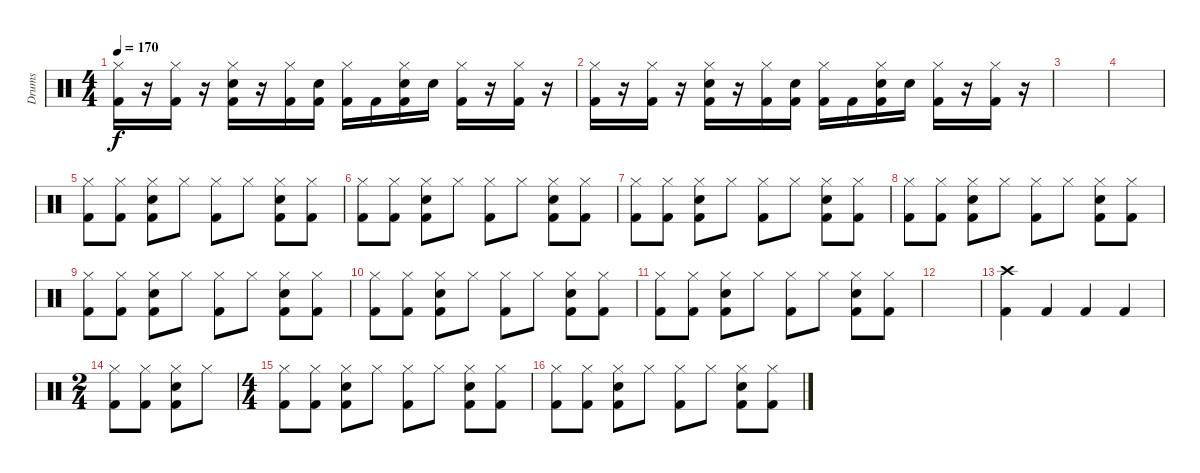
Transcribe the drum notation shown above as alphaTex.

\track ("Drums" "Drums") {instrument percussion}
\staff {score}
\articulation defaults
\ts (4 4)
\tempo 170
\clef neutral
\ks c
("Hi-Hat (closed)" "Kick (hit) 2").16{dy f} r.16 ("Hi-Hat (closed)" "Kick (hit) 2").16 r.16 ("Hi-Hat (closed)" "Electric Snare (hit)" "Kick (hit) 2").16 r.16 ("Hi-Hat (closed)" "Kick (hit) 2").16 ("Kick (hit) 2" "Electric Snare (hit)").16 ("Hi-Hat (closed)" "Kick (hit) 2").16 "Kick (hit) 2".16 ("Hi-Hat (closed)" "Kick (hit) 2" "Electric Snare (hit)").16 "Electric Snare (hit)".16 ("Hi-Hat (closed)" "Kick (hit) 2").16 r.16 ("Hi-Hat (closed)" "Kick (hit) 2").16 r.16 |
("Hi-Hat (closed)" "Kick (hit) 2").16 r.16 ("Hi-Hat (closed)" "Kick (hit) 2").16 r.16 ("Hi-Hat (closed)" "Electric Snare (hit)" "Kick (hit) 2").16 r.16 ("Hi-Hat (closed)" "Kick (hit) 2").16 ("Kick (hit) 2" "Electric Snare (hit)").16 ("Hi-Hat (closed)" "Kick (hit) 2").16 "Kick (hit) 2".16 ("Hi-Hat (closed)" "Kick (hit) 2" "Electric Snare (hit)").16 "Electric Snare (hit)".16 ("Hi-Hat (closed)" "Kick (hit) 2").16 r.16 ("Hi-Hat (closed)" "Kick (hit) 2").16 r.16 |
|
|
("Hi-Hat (closed)" "Kick (hit) 2").8 ("Hi-Hat (closed)" "Kick (hit) 2").8 ("Hi-Hat (closed)" "Electric Snare (hit)" "Kick (hit) 2").8 "Hi-Hat (closed)".8 ("Hi-Hat (closed)" "Kick (hit) 2").8 "Hi-Hat (closed)".8 ("Hi-Hat (closed)" "Electric Snare (hit)" "Kick (hit) 2").8 ("Hi-Hat (closed)" "Kick (hit) 2").8 |
("Hi-Hat (closed)" "Kick (hit) 2").8 ("Hi-Hat (closed)" "Kick (hit) 2").8 ("Hi-Hat (closed)" "Electric Snare (hit)" "Kick (hit) 2").8 "Hi-Hat (closed)".8 ("Hi-Hat (closed)" "Kick (hit) 2").8 "Hi-Hat (closed)".8 ("Hi-Hat (closed)" "Electric Snare (hit)" "Kick (hit) 2").8 ("Hi-Hat (closed)" "Kick (hit) 2").8 |
("Hi-Hat (closed)" "Kick (hit) 2").8 ("Hi-Hat (closed)" "Kick (hit) 2").8 ("Hi-Hat (closed)" "Electric Snare (hit)" "Kick (hit) 2").8 "Hi-Hat (closed)".8 ("Hi-Hat (closed)" "Kick (hit) 2").8 "Hi-Hat (closed)".8 ("Hi-Hat (closed)" "Electric Snare (hit)" "Kick (hit) 2").8 ("Hi-Hat (closed)" "Kick (hit) 2").8 |
("Hi-Hat (closed)" "Kick (hit) 2").8 ("Hi-Hat (closed)" "Kick (hit) 2").8 ("Hi-Hat (closed)" "Electric Snare (hit)" "Kick (hit) 2").8 "Hi-Hat (closed)".8 ("Hi-Hat (closed)" "Kick (hit) 2").8 "Hi-Hat (closed)".8 ("Hi-Hat (closed)" "Electric Snare (hit)" "Kick (hit) 2").8 ("Hi-Hat (closed)" "Kick (hit) 2").8 |
("Hi-Hat (closed)" "Kick (hit) 2").8 ("Hi-Hat (closed)" "Kick (hit) 2").8 ("Hi-Hat (closed)" "Electric Snare (hit)" "Kick (hit) 2").8 "Hi-Hat (closed)".8 ("Hi-Hat (closed)" "Kick (hit) 2").8 "Hi-Hat (closed)".8 ("Hi-Hat (closed)" "Electric Snare (hit)" "Kick (hit) 2").8 ("Hi-Hat (closed)" "Kick (hit) 2").8 |
("Hi-Hat (closed)" "Kick (hit) 2").8 ("Hi-Hat (closed)" "Kick (hit) 2").8 ("Hi-Hat (closed)" "Electric Snare (hit)" "Kick (hit) 2").8 "Hi-Hat (closed)".8 ("Hi-Hat (closed)" "Kick (hit) 2").8 "Hi-Hat (closed)".8 ("Hi-Hat (closed)" "Electric Snare (hit)" "Kick (hit) 2").8 ("Hi-Hat (closed)" "Kick (hit) 2").8 |
("Hi-Hat (closed)" "Kick (hit) 2").8 ("Hi-Hat (closed)" "Kick (hit) 2").8 ("Hi-Hat (closed)" "Electric Snare (hit)" "Kick (hit) 2").8 "Hi-Hat (closed)".8 ("Hi-Hat (closed)" "Kick (hit) 2").8 "Hi-Hat (closed)".8 ("Hi-Hat (closed)" "Electric Snare (hit)" "Kick (hit) 2").8 ("Hi-Hat (closed)" "Kick (hit) 2").8 |
|
("Crash high (hit)" "Kick (hit) 2").4 "Kick (hit) 2".4 "Kick (hit) 2".4 "Kick (hit) 2".4 |
\ts (2 4)
("Hi-Hat (closed)" "Kick (hit) 2").8 ("Hi-Hat (closed)" "Kick (hit) 2").8 ("Hi-Hat (closed)" "Electric Snare (hit)" "Kick (hit) 2").8 "Hi-Hat (closed)".8 |
\ts (4 4)
("Hi-Hat (closed)" "Kick (hit) 2").8 ("Hi-Hat (closed)" "Kick (hit) 2").8 ("Hi-Hat (closed)" "Electric Snare (hit)" "Kick (hit) 2").8 "Hi-Hat (closed)".8 ("Hi-Hat (closed)" "Kick (hit) 2").8 "Hi-Hat (closed)".8 ("Hi-Hat (closed)" "Electric Snare (hit)" "Kick (hit) 2").8 ("Hi-Hat (closed)" "Kick (hit) 2").8 |
("Hi-Hat (closed)" "Kick (hit) 2").8 ("Hi-Hat (closed)" "Kick (hit) 2").8 ("Hi-Hat (closed)" "Electric Snare (hit)" "Kick (hit) 2").8 "Hi-Hat (closed)".8 ("Hi-Hat (closed)" "Kick (hit) 2").8 "Hi-Hat (closed)".8 ("Hi-Hat (closed)" "Electric Snare (hit)" "Kick (hit) 2").8 ("Hi-Hat (closed)" "Kick (hit) 2").8
